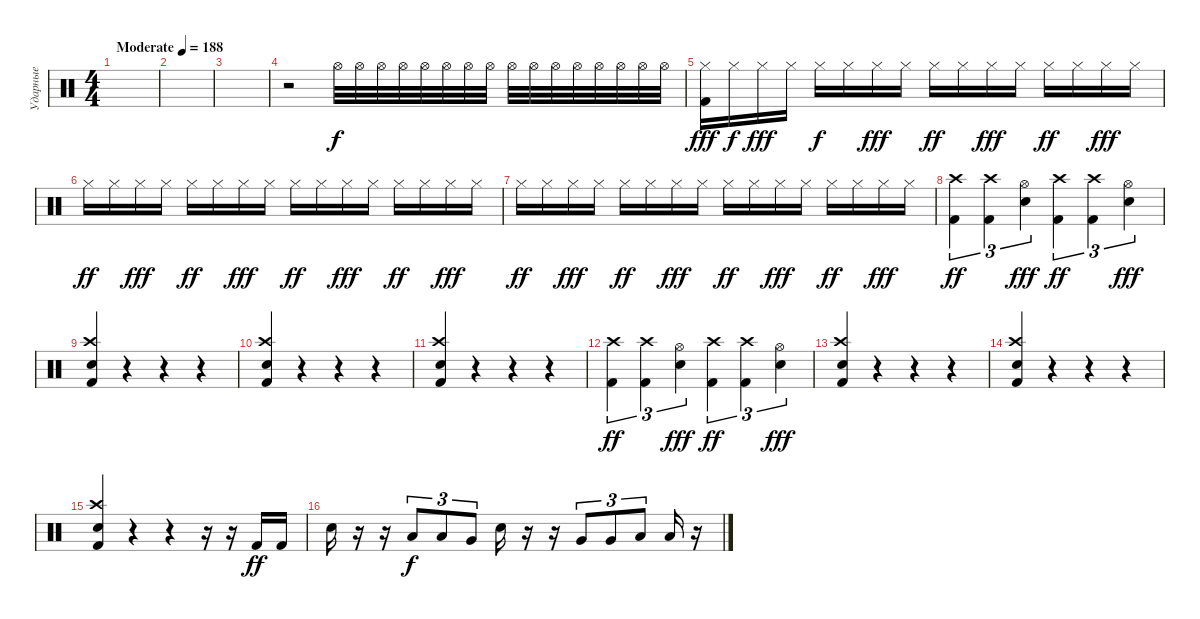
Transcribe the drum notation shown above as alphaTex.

\track ("Ударные" "Ударные") {instrument percussion}
\staff {score}
\articulation defaults
\ts (4 4)
\tempo (188 "Moderate")
\clef neutral
\ks c
|
|
|
r.2 "Hi-Hat (open)".32 "Hi-Hat (open)".32 "Hi-Hat (open)".32 "Hi-Hat (open)".32 "Hi-Hat (open)".32 "Hi-Hat (open)".32 "Hi-Hat (open)".32 "Hi-Hat (open)".32 "Hi-Hat (open)".32 "Hi-Hat (open)".32 "Hi-Hat (open)".32 "Hi-Hat (open)".32 "Hi-Hat (open)".32 "Hi-Hat (open)".32 "Hi-Hat (open)".32 "Hi-Hat (open)".32 |
("Kick (hit) 2" "Hi-Hat (closed)").16{dy fff} "Hi-Hat (closed)".16{dy f} "Hi-Hat (closed)".16{dy fff} "Hi-Hat (closed)".16 "Hi-Hat (closed)".16{dy f} "Hi-Hat (closed)".16 "Hi-Hat (closed)".16{dy fff} "Hi-Hat (closed)".16 "Hi-Hat (closed)".16{dy ff} "Hi-Hat (closed)".16 "Hi-Hat (closed)".16{dy fff} "Hi-Hat (closed)".16 "Hi-Hat (closed)".16{dy ff} "Hi-Hat (closed)".16 "Hi-Hat (closed)".16{dy fff} "Hi-Hat (closed)".16 |
"Hi-Hat (closed)".16{dy ff} "Hi-Hat (closed)".16 "Hi-Hat (closed)".16{dy fff} "Hi-Hat (closed)".16 "Hi-Hat (closed)".16{dy ff} "Hi-Hat (closed)".16 "Hi-Hat (closed)".16{dy fff} "Hi-Hat (closed)".16 "Hi-Hat (closed)".16{dy ff} "Hi-Hat (closed)".16 "Hi-Hat (closed)".16{dy fff} "Hi-Hat (closed)".16 "Hi-Hat (closed)".16{dy ff} "Hi-Hat (closed)".16 "Hi-Hat (closed)".16{dy fff} "Hi-Hat (closed)".16 |
"Hi-Hat (closed)".16{dy ff} "Hi-Hat (closed)".16 "Hi-Hat (closed)".16{dy fff} "Hi-Hat (closed)".16 "Hi-Hat (closed)".16{dy ff} "Hi-Hat (closed)".16 "Hi-Hat (closed)".16{dy fff} "Hi-Hat (closed)".16 "Hi-Hat (closed)".16{dy ff} "Hi-Hat (closed)".16 "Hi-Hat (closed)".16{dy fff} "Hi-Hat (closed)".16 "Hi-Hat (closed)".16{dy ff} "Hi-Hat (closed)".16 "Hi-Hat (closed)".16{dy fff} "Hi-Hat (closed)".16 |
("Crash high (hit)" "Kick (hit) 2").4{tu (3 2) dy ff} ("Crash high (hit)" "Kick (hit) 2").4{tu (3 2)} ("Hi-Hat (open)" "Electric Snare (hit)").4{tu (3 2) dy fff} ("Crash high (hit)" "Kick (hit) 2").4{tu (3 2) dy ff} ("Crash high (hit)" "Kick (hit) 2").4{tu (3 2)} ("Hi-Hat (open)" "Electric Snare (hit)").4{tu (3 2) dy fff} |
("Crash high (hit)" "Electric Snare (hit)" "Kick (hit) 2").4 r.4 r.4 r.4 |
("Crash high (hit)" "Electric Snare (hit)" "Kick (hit) 2").4 r.4 r.4 r.4 |
("Crash high (hit)" "Electric Snare (hit)" "Kick (hit) 2").4 r.4 r.4 r.4 |
("Crash high (hit)" "Kick (hit) 2").4{tu (3 2) dy ff} ("Crash high (hit)" "Kick (hit) 2").4{tu (3 2)} ("Hi-Hat (open)" "Electric Snare (hit)").4{tu (3 2) dy fff} ("Crash high (hit)" "Kick (hit) 2").4{tu (3 2) dy ff} ("Crash high (hit)" "Kick (hit) 2").4{tu (3 2)} ("Hi-Hat (open)" "Electric Snare (hit)").4{tu (3 2) dy fff} |
("Crash high (hit)" "Electric Snare (hit)" "Kick (hit) 2").4 r.4 r.4 r.4 |
("Crash high (hit)" "Electric Snare (hit)" "Kick (hit) 2").4 r.4 r.4 r.4 |
("Crash high (hit)" "Electric Snare (hit)" "Kick (hit) 2").4 r.4 r.4 r.16 r.16 "Kick (hit) 2".16{dy ff} "Kick (hit) 2".16 |
"Electric Snare (hit)".16 r.16 r.16 "Low Tom (hit)".8{tu (3 2) dy f} "Low Tom (hit)".8{tu (3 2)} "Very Low Tom (hit)".8{tu (3 2)} "Electric Snare (hit)".16 r.16 r.16 "Very Low Tom (hit)".8{tu (3 2)} "Very Low Tom (hit)".8{tu (3 2)} "Low Floor Tom (hit)".8{tu (3 2)} "Low Floor Tom (hit)".16 r.16
